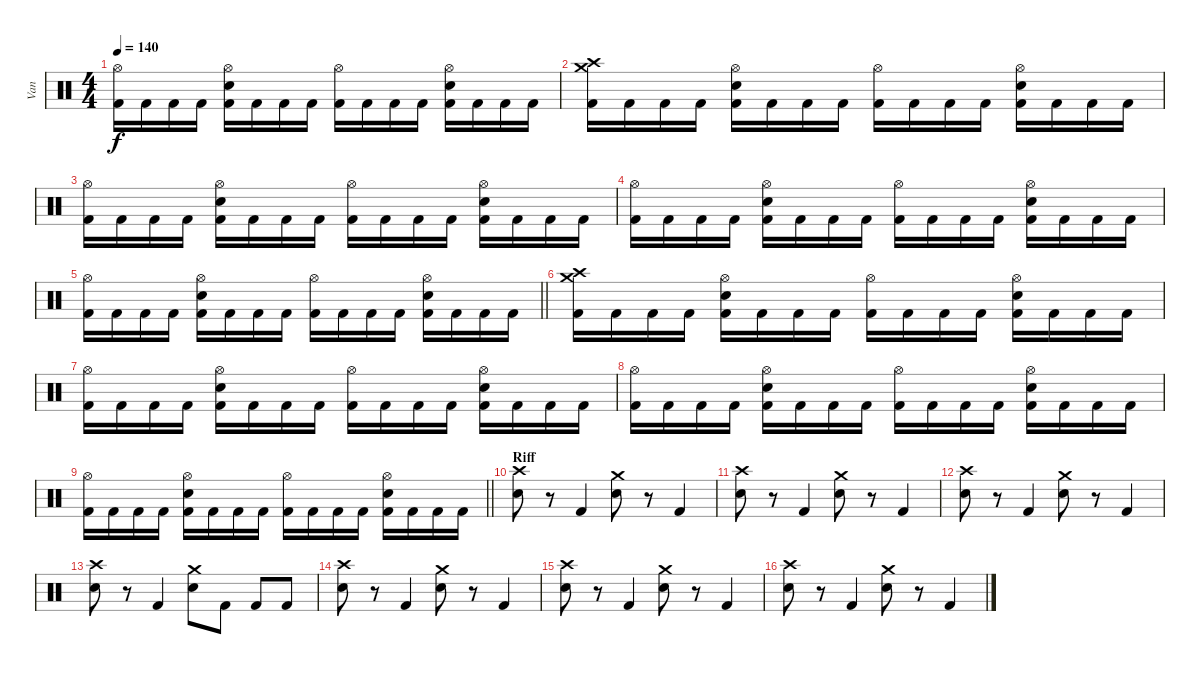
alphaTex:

\track ("Van" "Van") {instrument percussion}
\staff {score}
\articulation defaults
\ts (4 4)
\tempo 140
\clef neutral
\ks c
("Hi-Hat (open)" "Kick (hit) 2").16{dy f} "Kick (hit) 2".16 "Kick (hit) 2".16 "Kick (hit) 2".16 ("Hi-Hat (open)" "Electric Snare (hit)" "Kick (hit) 2").16 "Kick (hit) 2".16 "Kick (hit) 2".16 "Kick (hit) 2".16 ("Hi-Hat (open)" "Kick (hit) 2").16 "Kick (hit) 2".16 "Kick (hit) 2".16 "Kick (hit) 2".16 ("Hi-Hat (open)" "Electric Snare (hit)" "Kick (hit) 2").16 "Kick (hit) 2".16 "Kick (hit) 2".16 "Kick (hit) 2".16 |
("Crash high (hit)" "Crash medium (hit)" "Kick (hit) 2").16 "Kick (hit) 2".16 "Kick (hit) 2".16 "Kick (hit) 2".16 ("Hi-Hat (open)" "Electric Snare (hit)" "Kick (hit) 2").16 "Kick (hit) 2".16 "Kick (hit) 2".16 "Kick (hit) 2".16 ("Hi-Hat (open)" "Kick (hit) 2").16 "Kick (hit) 2".16 "Kick (hit) 2".16 "Kick (hit) 2".16 ("Hi-Hat (open)" "Electric Snare (hit)" "Kick (hit) 2").16 "Kick (hit) 2".16 "Kick (hit) 2".16 "Kick (hit) 2".16 |
("Hi-Hat (open)" "Kick (hit) 2").16 "Kick (hit) 2".16 "Kick (hit) 2".16 "Kick (hit) 2".16 ("Hi-Hat (open)" "Electric Snare (hit)" "Kick (hit) 2").16 "Kick (hit) 2".16 "Kick (hit) 2".16 "Kick (hit) 2".16 ("Hi-Hat (open)" "Kick (hit) 2").16 "Kick (hit) 2".16 "Kick (hit) 2".16 "Kick (hit) 2".16 ("Hi-Hat (open)" "Electric Snare (hit)" "Kick (hit) 2").16 "Kick (hit) 2".16 "Kick (hit) 2".16 "Kick (hit) 2".16 |
("Hi-Hat (open)" "Kick (hit) 2").16 "Kick (hit) 2".16 "Kick (hit) 2".16 "Kick (hit) 2".16 ("Hi-Hat (open)" "Electric Snare (hit)" "Kick (hit) 2").16 "Kick (hit) 2".16 "Kick (hit) 2".16 "Kick (hit) 2".16 ("Hi-Hat (open)" "Kick (hit) 2").16 "Kick (hit) 2".16 "Kick (hit) 2".16 "Kick (hit) 2".16 ("Hi-Hat (open)" "Electric Snare (hit)" "Kick (hit) 2").16 "Kick (hit) 2".16 "Kick (hit) 2".16 "Kick (hit) 2".16 |
\barLineRight lightlight
("Hi-Hat (open)" "Kick (hit) 2").16 "Kick (hit) 2".16 "Kick (hit) 2".16 "Kick (hit) 2".16 ("Hi-Hat (open)" "Electric Snare (hit)" "Kick (hit) 2").16 "Kick (hit) 2".16 "Kick (hit) 2".16 "Kick (hit) 2".16 ("Hi-Hat (open)" "Kick (hit) 2").16 "Kick (hit) 2".16 "Kick (hit) 2".16 "Kick (hit) 2".16 ("Hi-Hat (open)" "Electric Snare (hit)" "Kick (hit) 2").16 "Kick (hit) 2".16 "Kick (hit) 2".16 "Kick (hit) 2".16 |
("Crash high (hit)" "Crash medium (hit)" "Kick (hit) 2").16 "Kick (hit) 2".16 "Kick (hit) 2".16 "Kick (hit) 2".16 ("Hi-Hat (open)" "Electric Snare (hit)" "Kick (hit) 2").16 "Kick (hit) 2".16 "Kick (hit) 2".16 "Kick (hit) 2".16 ("Hi-Hat (open)" "Kick (hit) 2").16 "Kick (hit) 2".16 "Kick (hit) 2".16 "Kick (hit) 2".16 ("Hi-Hat (open)" "Electric Snare (hit)" "Kick (hit) 2").16 "Kick (hit) 2".16 "Kick (hit) 2".16 "Kick (hit) 2".16 |
("Hi-Hat (open)" "Kick (hit) 2").16 "Kick (hit) 2".16 "Kick (hit) 2".16 "Kick (hit) 2".16 ("Hi-Hat (open)" "Electric Snare (hit)" "Kick (hit) 2").16 "Kick (hit) 2".16 "Kick (hit) 2".16 "Kick (hit) 2".16 ("Hi-Hat (open)" "Kick (hit) 2").16 "Kick (hit) 2".16 "Kick (hit) 2".16 "Kick (hit) 2".16 ("Hi-Hat (open)" "Electric Snare (hit)" "Kick (hit) 2").16 "Kick (hit) 2".16 "Kick (hit) 2".16 "Kick (hit) 2".16 |
("Hi-Hat (open)" "Kick (hit) 2").16 "Kick (hit) 2".16 "Kick (hit) 2".16 "Kick (hit) 2".16 ("Hi-Hat (open)" "Electric Snare (hit)" "Kick (hit) 2").16 "Kick (hit) 2".16 "Kick (hit) 2".16 "Kick (hit) 2".16 ("Hi-Hat (open)" "Kick (hit) 2").16 "Kick (hit) 2".16 "Kick (hit) 2".16 "Kick (hit) 2".16 ("Hi-Hat (open)" "Electric Snare (hit)" "Kick (hit) 2").16 "Kick (hit) 2".16 "Kick (hit) 2".16 "Kick (hit) 2".16 |
\barLineRight lightlight
("Hi-Hat (open)" "Kick (hit) 2").16 "Kick (hit) 2".16 "Kick (hit) 2".16 "Kick (hit) 2".16 ("Hi-Hat (open)" "Electric Snare (hit)" "Kick (hit) 2").16 "Kick (hit) 2".16 "Kick (hit) 2".16 "Kick (hit) 2".16 ("Hi-Hat (open)" "Kick (hit) 2").16 "Kick (hit) 2".16 "Kick (hit) 2".16 "Kick (hit) 2".16 ("Hi-Hat (open)" "Electric Snare (hit)" "Kick (hit) 2").16 "Kick (hit) 2".16 "Kick (hit) 2".16 "Kick (hit) 2".16 |
\section ("" "Riff")
("Crash high (hit)" "Electric Snare (hit)").8 r.8 "Kick (hit) 2".4 ("Crash medium (hit)" "Electric Snare (hit)").8 r.8 "Kick (hit) 2".4 |
("Crash high (hit)" "Electric Snare (hit)").8 r.8 "Kick (hit) 2".4 ("Crash medium (hit)" "Electric Snare (hit)").8 r.8 "Kick (hit) 2".4 |
("Crash high (hit)" "Electric Snare (hit)").8 r.8 "Kick (hit) 2".4 ("Crash medium (hit)" "Electric Snare (hit)").8 r.8 "Kick (hit) 2".4 |
("Crash high (hit)" "Electric Snare (hit)").8 r.8 "Kick (hit) 2".4 ("Crash medium (hit)" "Electric Snare (hit)").8 "Kick (hit) 2".8 "Kick (hit) 2".8 "Kick (hit) 2".8 |
("Crash high (hit)" "Electric Snare (hit)").8 r.8 "Kick (hit) 2".4 ("Crash medium (hit)" "Electric Snare (hit)").8 r.8 "Kick (hit) 2".4 |
("Crash high (hit)" "Electric Snare (hit)").8 r.8 "Kick (hit) 2".4 ("Crash medium (hit)" "Electric Snare (hit)").8 r.8 "Kick (hit) 2".4 |
("Crash high (hit)" "Electric Snare (hit)").8 r.8 "Kick (hit) 2".4 ("Crash medium (hit)" "Electric Snare (hit)").8 r.8 "Kick (hit) 2".4
